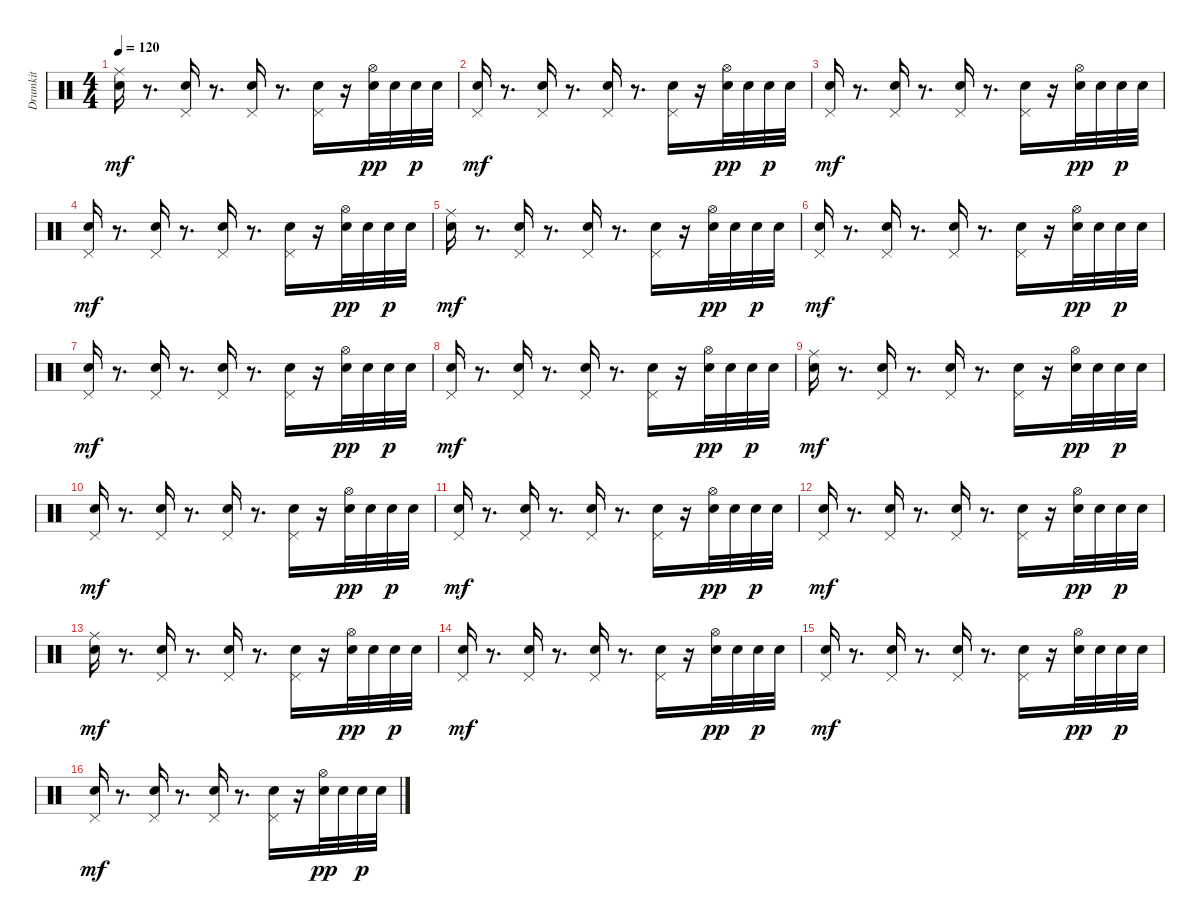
\track ("Drumkit" "Drumkit") {instrument percussion}
\staff {score}
\articulation defaults
\ts (4 4)
\tempo 120
\clef neutral
\ks c
("Snare (hit) 2" "Ride (middle)").16{dy mf} r.8{d} ("Snare (hit) 2" "Pedal Hi-Hat (hit)").16 r.8{d} ("Snare (hit) 2" "Pedal Hi-Hat (hit)").16 r.8{d} ("Snare (hit) 2" "Pedal Hi-Hat (hit)").16 r.16 ("Snare (hit) 2" "Hi-Hat (open)").32{dy pp} "Snare (hit) 2".32 "Snare (hit) 2".32{dy p} "Snare (hit) 2".32 |
("Snare (hit) 2" "Pedal Hi-Hat (hit)").16{dy mf} r.8{d} ("Snare (hit) 2" "Pedal Hi-Hat (hit)").16 r.8{d} ("Snare (hit) 2" "Pedal Hi-Hat (hit)").16 r.8{d} ("Snare (hit) 2" "Pedal Hi-Hat (hit)").16 r.16 ("Snare (hit) 2" "Hi-Hat (open)").32{dy pp} "Snare (hit) 2".32 "Snare (hit) 2".32{dy p} "Snare (hit) 2".32 |
("Snare (hit) 2" "Pedal Hi-Hat (hit)").16{dy mf} r.8{d} ("Snare (hit) 2" "Pedal Hi-Hat (hit)").16 r.8{d} ("Snare (hit) 2" "Pedal Hi-Hat (hit)").16 r.8{d} ("Snare (hit) 2" "Pedal Hi-Hat (hit)").16 r.16 ("Snare (hit) 2" "Hi-Hat (open)").32{dy pp} "Snare (hit) 2".32 "Snare (hit) 2".32{dy p} "Snare (hit) 2".32 |
("Snare (hit) 2" "Pedal Hi-Hat (hit)").16{dy mf} r.8{d} ("Snare (hit) 2" "Pedal Hi-Hat (hit)").16 r.8{d} ("Snare (hit) 2" "Pedal Hi-Hat (hit)").16 r.8{d} ("Snare (hit) 2" "Pedal Hi-Hat (hit)").16 r.16 ("Snare (hit) 2" "Hi-Hat (open)").32{dy pp} "Snare (hit) 2".32 "Snare (hit) 2".32{dy p} "Snare (hit) 2".32 |
("Snare (hit) 2" "Ride (middle)").16{dy mf} r.8{d} ("Snare (hit) 2" "Pedal Hi-Hat (hit)").16 r.8{d} ("Snare (hit) 2" "Pedal Hi-Hat (hit)").16 r.8{d} ("Snare (hit) 2" "Pedal Hi-Hat (hit)").16 r.16 ("Snare (hit) 2" "Hi-Hat (open)").32{dy pp} "Snare (hit) 2".32 "Snare (hit) 2".32{dy p} "Snare (hit) 2".32 |
("Snare (hit) 2" "Pedal Hi-Hat (hit)").16{dy mf} r.8{d} ("Snare (hit) 2" "Pedal Hi-Hat (hit)").16 r.8{d} ("Snare (hit) 2" "Pedal Hi-Hat (hit)").16 r.8{d} ("Snare (hit) 2" "Pedal Hi-Hat (hit)").16 r.16 ("Snare (hit) 2" "Hi-Hat (open)").32{dy pp} "Snare (hit) 2".32 "Snare (hit) 2".32{dy p} "Snare (hit) 2".32 |
("Snare (hit) 2" "Pedal Hi-Hat (hit)").16{dy mf} r.8{d} ("Snare (hit) 2" "Pedal Hi-Hat (hit)").16 r.8{d} ("Snare (hit) 2" "Pedal Hi-Hat (hit)").16 r.8{d} ("Snare (hit) 2" "Pedal Hi-Hat (hit)").16 r.16 ("Snare (hit) 2" "Hi-Hat (open)").32{dy pp} "Snare (hit) 2".32 "Snare (hit) 2".32{dy p} "Snare (hit) 2".32 |
("Snare (hit) 2" "Pedal Hi-Hat (hit)").16{dy mf} r.8{d} ("Snare (hit) 2" "Pedal Hi-Hat (hit)").16 r.8{d} ("Snare (hit) 2" "Pedal Hi-Hat (hit)").16 r.8{d} ("Snare (hit) 2" "Pedal Hi-Hat (hit)").16 r.16 ("Snare (hit) 2" "Hi-Hat (open)").32{dy pp} "Snare (hit) 2".32 "Snare (hit) 2".32{dy p} "Snare (hit) 2".32 |
("Snare (hit) 2" "Ride (middle)").16{dy mf} r.8{d} ("Snare (hit) 2" "Pedal Hi-Hat (hit)").16 r.8{d} ("Snare (hit) 2" "Pedal Hi-Hat (hit)").16 r.8{d} ("Snare (hit) 2" "Pedal Hi-Hat (hit)").16 r.16 ("Snare (hit) 2" "Hi-Hat (open)").32{dy pp} "Snare (hit) 2".32 "Snare (hit) 2".32{dy p} "Snare (hit) 2".32 |
("Snare (hit) 2" "Pedal Hi-Hat (hit)").16{dy mf} r.8{d} ("Snare (hit) 2" "Pedal Hi-Hat (hit)").16 r.8{d} ("Snare (hit) 2" "Pedal Hi-Hat (hit)").16 r.8{d} ("Snare (hit) 2" "Pedal Hi-Hat (hit)").16 r.16 ("Snare (hit) 2" "Hi-Hat (open)").32{dy pp} "Snare (hit) 2".32 "Snare (hit) 2".32{dy p} "Snare (hit) 2".32 |
("Snare (hit) 2" "Pedal Hi-Hat (hit)").16{dy mf} r.8{d} ("Snare (hit) 2" "Pedal Hi-Hat (hit)").16 r.8{d} ("Snare (hit) 2" "Pedal Hi-Hat (hit)").16 r.8{d} ("Snare (hit) 2" "Pedal Hi-Hat (hit)").16 r.16 ("Snare (hit) 2" "Hi-Hat (open)").32{dy pp} "Snare (hit) 2".32 "Snare (hit) 2".32{dy p} "Snare (hit) 2".32 |
("Snare (hit) 2" "Pedal Hi-Hat (hit)").16{dy mf} r.8{d} ("Snare (hit) 2" "Pedal Hi-Hat (hit)").16 r.8{d} ("Snare (hit) 2" "Pedal Hi-Hat (hit)").16 r.8{d} ("Snare (hit) 2" "Pedal Hi-Hat (hit)").16 r.16 ("Snare (hit) 2" "Hi-Hat (open)").32{dy pp} "Snare (hit) 2".32 "Snare (hit) 2".32{dy p} "Snare (hit) 2".32 |
("Snare (hit) 2" "Ride (middle)").16{dy mf} r.8{d} ("Snare (hit) 2" "Pedal Hi-Hat (hit)").16 r.8{d} ("Snare (hit) 2" "Pedal Hi-Hat (hit)").16 r.8{d} ("Snare (hit) 2" "Pedal Hi-Hat (hit)").16 r.16 ("Snare (hit) 2" "Hi-Hat (open)").32{dy pp} "Snare (hit) 2".32 "Snare (hit) 2".32{dy p} "Snare (hit) 2".32 |
("Snare (hit) 2" "Pedal Hi-Hat (hit)").16{dy mf} r.8{d} ("Snare (hit) 2" "Pedal Hi-Hat (hit)").16 r.8{d} ("Snare (hit) 2" "Pedal Hi-Hat (hit)").16 r.8{d} ("Snare (hit) 2" "Pedal Hi-Hat (hit)").16 r.16 ("Snare (hit) 2" "Hi-Hat (open)").32{dy pp} "Snare (hit) 2".32 "Snare (hit) 2".32{dy p} "Snare (hit) 2".32 |
("Snare (hit) 2" "Pedal Hi-Hat (hit)").16{dy mf} r.8{d} ("Snare (hit) 2" "Pedal Hi-Hat (hit)").16 r.8{d} ("Snare (hit) 2" "Pedal Hi-Hat (hit)").16 r.8{d} ("Snare (hit) 2" "Pedal Hi-Hat (hit)").16 r.16 ("Snare (hit) 2" "Hi-Hat (open)").32{dy pp} "Snare (hit) 2".32 "Snare (hit) 2".32{dy p} "Snare (hit) 2".32 |
("Snare (hit) 2" "Pedal Hi-Hat (hit)").16{dy mf} r.8{d} ("Snare (hit) 2" "Pedal Hi-Hat (hit)").16 r.8{d} ("Snare (hit) 2" "Pedal Hi-Hat (hit)").16 r.8{d} ("Snare (hit) 2" "Pedal Hi-Hat (hit)").16 r.16 ("Snare (hit) 2" "Hi-Hat (open)").32{dy pp} "Snare (hit) 2".32 "Snare (hit) 2".32{dy p} "Snare (hit) 2".32
